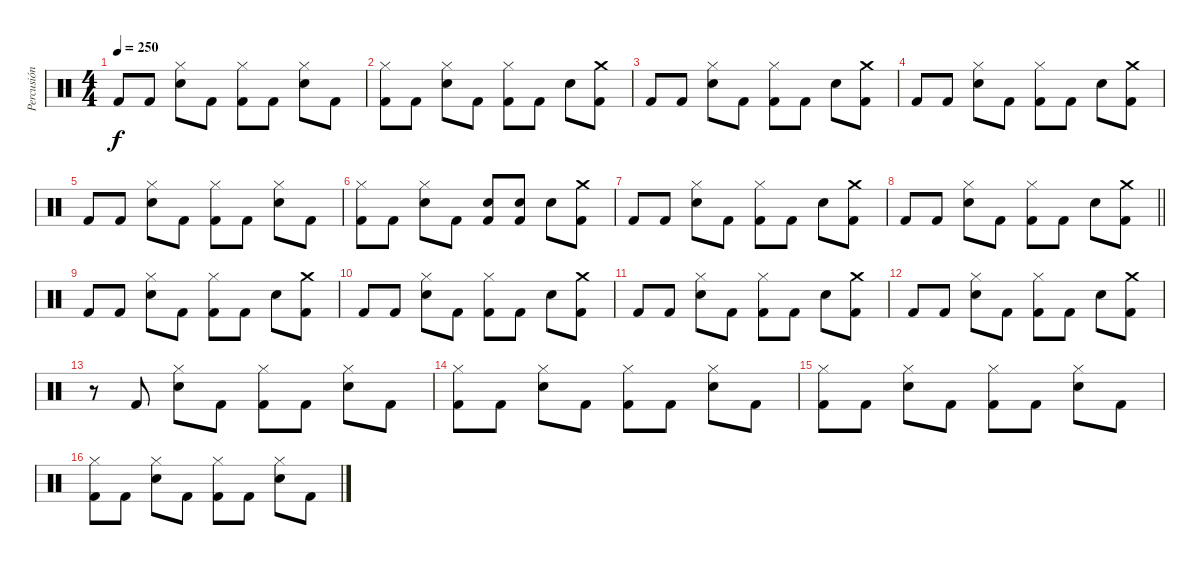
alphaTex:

\track ("Percusión" "Percusión") {instrument percussion}
\staff {score}
\articulation defaults
\ts (4 4)
\tempo 250
\clef neutral
\ks c "Kick (hit) 2".8{dy f} "Kick (hit) 2".8
("Electric Snare (hit)" "Hi-Hat (closed)").8 "Kick (hit) 2".8 ("Hi-Hat (closed)" "Kick (hit) 2").8 "Kick (hit) 2".8 ("Electric Snare (hit)" "Hi-Hat (closed)").8 "Kick (hit) 2".8 |
("Hi-Hat (closed)" "Kick (hit) 2").8 "Kick (hit) 2".8 ("Electric Snare (hit)" "Hi-Hat (closed)").8 "Kick (hit) 2".8 ("Hi-Hat (closed)" "Kick (hit) 2").8 "Kick (hit) 2".8 "Electric Snare (hit)".8 ("Crash medium (hit)" "Kick (hit) 2").8 |
"Kick (hit) 2".8 "Kick (hit) 2".8 ("Electric Snare (hit)" "Hi-Hat (closed)").8 "Kick (hit) 2".8 ("Hi-Hat (closed)" "Kick (hit) 2").8 "Kick (hit) 2".8 "Electric Snare (hit)".8 ("Crash medium (hit)" "Kick (hit) 2").8 |
"Kick (hit) 2".8 "Kick (hit) 2".8 ("Electric Snare (hit)" "Hi-Hat (closed)").8 "Kick (hit) 2".8 ("Hi-Hat (closed)" "Kick (hit) 2").8 "Kick (hit) 2".8 "Electric Snare (hit)".8 ("Crash medium (hit)" "Kick (hit) 2").8 |
"Kick (hit) 2".8 "Kick (hit) 2".8 ("Electric Snare (hit)" "Hi-Hat (closed)").8 "Kick (hit) 2".8 ("Hi-Hat (closed)" "Kick (hit) 2").8 "Kick (hit) 2".8 ("Electric Snare (hit)" "Hi-Hat (closed)").8 "Kick (hit) 2".8 |
("Hi-Hat (closed)" "Kick (hit) 2").8 "Kick (hit) 2".8 ("Electric Snare (hit)" "Hi-Hat (closed)").8 "Kick (hit) 2".8 ("Electric Snare (hit)" "Kick (hit) 2").8 ("Electric Snare (hit)" "Kick (hit) 2").8 "Electric Snare (hit)".8 ("Crash medium (hit)" "Kick (hit) 2").8 |
"Kick (hit) 2".8 "Kick (hit) 2".8 ("Electric Snare (hit)" "Hi-Hat (closed)").8 "Kick (hit) 2".8 ("Hi-Hat (closed)" "Kick (hit) 2").8 "Kick (hit) 2".8 "Electric Snare (hit)".8 ("Crash medium (hit)" "Kick (hit) 2").8 |
\barLineRight lightlight "Kick (hit) 2".8 "Kick (hit) 2".8
("Electric Snare (hit)" "Hi-Hat (closed)").8 "Kick (hit) 2".8 ("Hi-Hat (closed)" "Kick (hit) 2").8 "Kick (hit) 2".8 "Electric Snare (hit)".8 ("Crash medium (hit)" "Kick (hit) 2").8 |
"Kick (hit) 2".8 "Kick (hit) 2".8 ("Electric Snare (hit)" "Hi-Hat (closed)").8 "Kick (hit) 2".8 ("Hi-Hat (closed)" "Kick (hit) 2").8 "Kick (hit) 2".8 "Electric Snare (hit)".8 ("Crash medium (hit)" "Kick (hit) 2").8 |
"Kick (hit) 2".8 "Kick (hit) 2".8 ("Electric Snare (hit)" "Hi-Hat (closed)").8 "Kick (hit) 2".8 ("Hi-Hat (closed)" "Kick (hit) 2").8 "Kick (hit) 2".8 "Electric Snare (hit)".8 ("Crash medium (hit)" "Kick (hit) 2").8 |
"Kick (hit) 2".8 "Kick (hit) 2".8 ("Electric Snare (hit)" "Hi-Hat (closed)").8 "Kick (hit) 2".8 ("Hi-Hat (closed)" "Kick (hit) 2").8 "Kick (hit) 2".8 "Electric Snare (hit)".8 ("Crash medium (hit)" "Kick (hit) 2").8 |
"Kick (hit) 2".8 "Kick (hit) 2".8 ("Electric Snare (hit)" "Hi-Hat (closed)").8 "Kick (hit) 2".8 ("Hi-Hat (closed)" "Kick (hit) 2").8 "Kick (hit) 2".8 "Electric Snare (hit)".8 ("Crash medium (hit)" "Kick (hit) 2").8 |
r.8 "Kick (hit) 2".8 ("Electric Snare (hit)" "Hi-Hat (closed)").8 "Kick (hit) 2".8 ("Hi-Hat (closed)" "Kick (hit) 2").8 "Kick (hit) 2".8 ("Electric Snare (hit)" "Hi-Hat (closed)").8 "Kick (hit) 2".8 |
("Hi-Hat (closed)" "Kick (hit) 2").8 "Kick (hit) 2".8 ("Electric Snare (hit)" "Hi-Hat (closed)").8 "Kick (hit) 2".8 ("Hi-Hat (closed)" "Kick (hit) 2").8 "Kick (hit) 2".8 ("Electric Snare (hit)" "Hi-Hat (closed)").8 "Kick (hit) 2".8 |
("Hi-Hat (closed)" "Kick (hit) 2").8 "Kick (hit) 2".8 ("Electric Snare (hit)" "Hi-Hat (closed)").8 "Kick (hit) 2".8 ("Hi-Hat (closed)" "Kick (hit) 2").8 "Kick (hit) 2".8 ("Electric Snare (hit)" "Hi-Hat (closed)").8 "Kick (hit) 2".8 |
("Hi-Hat (closed)" "Kick (hit) 2").8 "Kick (hit) 2".8 ("Electric Snare (hit)" "Hi-Hat (closed)").8 "Kick (hit) 2".8 ("Hi-Hat (closed)" "Kick (hit) 2").8 "Kick (hit) 2".8 ("Electric Snare (hit)" "Hi-Hat (closed)").8 "Kick (hit) 2".8
